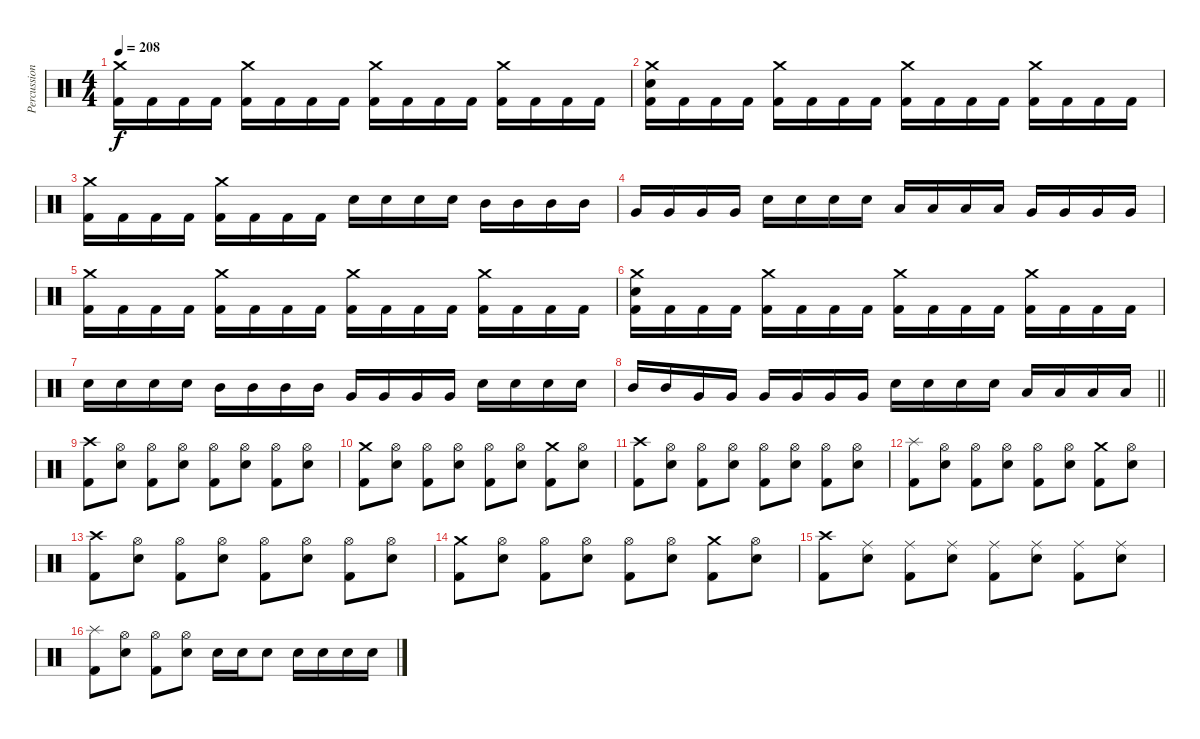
\track ("Percussion" "Percussion") {instrument percussion}
\staff {score}
\articulation defaults
\ts (4 4)
\tempo 208
\clef neutral
\ks c
("Crash medium (hit)" "Kick (hit) 2").16{dy f} "Kick (hit) 2".16 "Kick (hit) 2".16 "Kick (hit) 2".16 ("Crash medium (hit)" "Kick (hit) 2").16 "Kick (hit) 2".16 "Kick (hit) 2".16 "Kick (hit) 2".16 ("Crash medium (hit)" "Kick (hit) 2").16 "Kick (hit) 2".16 "Kick (hit) 2".16 "Kick (hit) 2".16 ("Crash medium (hit)" "Kick (hit) 2").16 "Kick (hit) 2".16 "Kick (hit) 2".16 "Kick (hit) 2".16 |
("Crash medium (hit)" "Snare (hit) 2" "Kick (hit) 2").16 "Kick (hit) 2".16 "Kick (hit) 2".16 "Kick (hit) 2".16 ("Crash medium (hit)" "Kick (hit) 2").16 "Kick (hit) 2".16 "Kick (hit) 2".16 "Kick (hit) 2".16 ("Crash medium (hit)" "Kick (hit) 2").16 "Kick (hit) 2".16 "Kick (hit) 2".16 "Kick (hit) 2".16 ("Crash medium (hit)" "Kick (hit) 2").16 "Kick (hit) 2".16 "Kick (hit) 2".16 "Kick (hit) 2".16 |
("Crash medium (hit)" "Kick (hit) 2").16 "Kick (hit) 2".16 "Kick (hit) 2".16 "Kick (hit) 2".16 ("Crash medium (hit)" "Kick (hit) 2").16 "Kick (hit) 2".16 "Kick (hit) 2".16 "Kick (hit) 2".16 "Snare (hit) 2".16 "Snare (hit) 2".16 "Snare (hit) 2".16 "Snare (hit) 2".16 "Mid Tom (hit)".16 "Mid Tom (hit)".16 "Mid Tom (hit)".16 "Mid Tom (hit)".16 |
"Very Low Tom (hit)".16 "Very Low Tom (hit)".16 "Very Low Tom (hit)".16 "Very Low Tom (hit)".16 "Snare (hit) 2".16 "Snare (hit) 2".16 "Snare (hit) 2".16 "Snare (hit) 2".16 "Low Tom (hit)".16 "Low Tom (hit)".16 "Low Tom (hit)".16 "Low Tom (hit)".16 "Very Low Tom (hit)".16 "Very Low Tom (hit)".16 "Very Low Tom (hit)".16 "Very Low Tom (hit)".16 |
("Crash medium (hit)" "Kick (hit) 2").16 "Kick (hit) 2".16 "Kick (hit) 2".16 "Kick (hit) 2".16 ("Crash medium (hit)" "Kick (hit) 2").16 "Kick (hit) 2".16 "Kick (hit) 2".16 "Kick (hit) 2".16 ("Crash medium (hit)" "Kick (hit) 2").16 "Kick (hit) 2".16 "Kick (hit) 2".16 "Kick (hit) 2".16 ("Crash medium (hit)" "Kick (hit) 2").16 "Kick (hit) 2".16 "Kick (hit) 2".16 "Kick (hit) 2".16 |
("Crash medium (hit)" "Snare (hit) 2" "Kick (hit) 2").16 "Kick (hit) 2".16 "Kick (hit) 2".16 "Kick (hit) 2".16 ("Crash medium (hit)" "Kick (hit) 2").16 "Kick (hit) 2".16 "Kick (hit) 2".16 "Kick (hit) 2".16 ("Crash medium (hit)" "Kick (hit) 2").16 "Kick (hit) 2".16 "Kick (hit) 2".16 "Kick (hit) 2".16 ("Crash medium (hit)" "Kick (hit) 2").16 "Kick (hit) 2".16 "Kick (hit) 2".16 "Kick (hit) 2".16 |
"Snare (hit) 2".16 "Snare (hit) 2".16 "Snare (hit) 2".16 "Snare (hit) 2".16 "Mid Tom (hit)".16 "Mid Tom (hit)".16 "Mid Tom (hit)".16 "Mid Tom (hit)".16 "Very Low Tom (hit)".16 "Very Low Tom (hit)".16 "Very Low Tom (hit)".16 "Very Low Tom (hit)".16 "Snare (hit) 2".16 "Snare (hit) 2".16 "Snare (hit) 2".16 "Snare (hit) 2".16 |
\barLineRight lightlight "Mid Tom (hit)".16 "Mid Tom (hit)".16 "Very Low Tom (hit)".16 "Very Low Tom (hit)".16 "Very Low Tom (hit)".16 "Very Low Tom (hit)".16 "Very Low Tom (hit)".16 "Very Low Tom (hit)".16 "Snare (hit) 2".16 "Snare (hit) 2".16 "Snare (hit) 2".16 "Snare (hit) 2".16 "Low Floor Tom (hit)".16 "Low Floor Tom (hit)".16 "Low Floor Tom (hit)".16 "Low Floor Tom (hit)".16
|
("Crash high (hit)" "Kick (hit) 2").8 ("Hi-Hat (open)" "Snare (hit) 2").8 ("Hi-Hat (open)" "Kick (hit) 2").8 ("Hi-Hat (open)" "Snare (hit) 2").8 ("Hi-Hat (open)" "Kick (hit) 2").8 ("Hi-Hat (open)" "Snare (hit) 2").8 ("Hi-Hat (open)" "Kick (hit) 2").8 ("Hi-Hat (open)" "Snare (hit) 2").8 |
("Crash medium (hit)" "Kick (hit) 2").8 ("Hi-Hat (open)" "Snare (hit) 2").8 ("Hi-Hat (open)" "Kick (hit) 2").8 ("Hi-Hat (open)" "Snare (hit) 2").8 ("Hi-Hat (open)" "Kick (hit) 2").8 ("Hi-Hat (open)" "Snare (hit) 2").8 ("Crash medium (hit)" "Kick (hit) 2").8 ("Hi-Hat (open)" "Snare (hit) 2").8 |
("Crash high (hit)" "Kick (hit) 2").8 ("Hi-Hat (open)" "Snare (hit) 2").8 ("Hi-Hat (open)" "Kick (hit) 2").8 ("Hi-Hat (open)" "Snare (hit) 2").8 ("Hi-Hat (open)" "Kick (hit) 2").8 ("Hi-Hat (open)" "Snare (hit) 2").8 ("Hi-Hat (open)" "Kick (hit) 2").8 ("Hi-Hat (open)" "Snare (hit) 2").8 |
("Splash (hit)" "Kick (hit) 2").8 ("Hi-Hat (open)" "Snare (hit) 2").8 ("Hi-Hat (open)" "Kick (hit) 2").8 ("Hi-Hat (open)" "Snare (hit) 2").8 ("Hi-Hat (open)" "Kick (hit) 2").8 ("Hi-Hat (open)" "Snare (hit) 2").8 ("Crash medium (hit)" "Kick (hit) 2").8 ("Hi-Hat (open)" "Snare (hit) 2").8 |
("Crash high (hit)" "Kick (hit) 2").8 ("Hi-Hat (open)" "Snare (hit) 2").8 ("Hi-Hat (open)" "Kick (hit) 2").8 ("Hi-Hat (open)" "Snare (hit) 2").8 ("Hi-Hat (open)" "Kick (hit) 2").8 ("Hi-Hat (open)" "Snare (hit) 2").8 ("Hi-Hat (open)" "Kick (hit) 2").8 ("Hi-Hat (open)" "Snare (hit) 2").8 |
("Crash medium (hit)" "Kick (hit) 2").8 ("Hi-Hat (open)" "Snare (hit) 2").8 ("Hi-Hat (open)" "Kick (hit) 2").8 ("Hi-Hat (open)" "Snare (hit) 2").8 ("Hi-Hat (open)" "Kick (hit) 2").8 ("Hi-Hat (open)" "Snare (hit) 2").8 ("Crash medium (hit)" "Kick (hit) 2").8 ("Hi-Hat (open)" "Snare (hit) 2").8 |
("Crash high (hit)" "Kick (hit) 2").8 ("Ride (middle)" "Snare (hit) 2").8 ("Ride (middle)" "Kick (hit) 2").8 ("Ride (middle)" "Snare (hit) 2").8 ("Ride (middle)" "Kick (hit) 2").8 ("Ride (middle)" "Snare (hit) 2").8 ("Ride (middle)" "Kick (hit) 2").8 ("Ride (middle)" "Snare (hit) 2").8 |
("Splash (hit)" "Kick (hit) 2").8 ("Hi-Hat (open)" "Snare (hit) 2").8 ("Hi-Hat (open)" "Kick (hit) 2").8 ("Hi-Hat (open)" "Snare (hit) 2").8 "Snare (hit) 2".16 "Snare (hit) 2".16 "Snare (hit) 2".8 "Snare (hit) 2".16 "Snare (hit) 2".16 "Snare (hit) 2".16 "Snare (hit) 2".16
